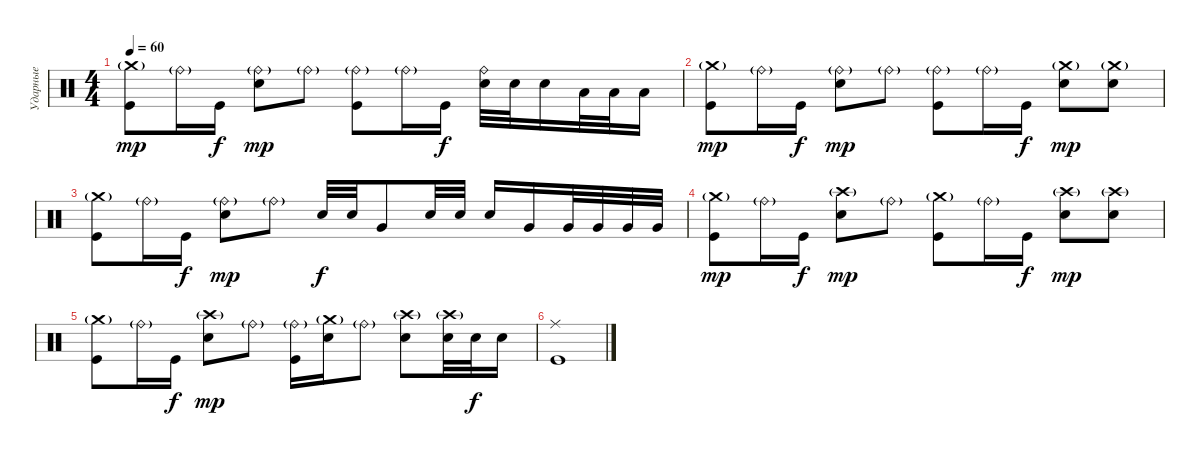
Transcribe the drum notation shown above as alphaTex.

\track ("Ударные" "Ударные") {instrument percussion}
\staff {score}
\articulation defaults
\ts (4 4)
\tempo 60
\clef neutral
\ks c
("Crash medium (hit)"{g} "Kick (hit)").8{dy mp} "Ride (bell)"{g}.16 "Kick (hit)".16{dy f} ("Snare (hit) 2" "Ride (bell)"{g}).8{dy mp} "Ride (bell)"{g}.8 ("Ride (bell)"{g} "Kick (hit)").8 "Ride (bell)"{g}.16 "Kick (hit)".16{dy f} ("Snare (hit) 2" "Ride (bell)").32 "Snare (hit) 2".32 "Snare (hit) 2".16 "Low Tom (hit)".32 "Low Tom (hit)".32 "Low Tom (hit)".16 |
("Crash medium (hit)"{g} "Kick (hit)").8{dy mp} "Ride (bell)"{g}.16 "Kick (hit)".16{dy f} ("Snare (hit) 2" "Ride (bell)"{g}).8{dy mp} "Ride (bell)"{g}.8 ("Ride (bell)"{g} "Kick (hit)").8 "Ride (bell)"{g}.16 "Kick (hit)".16{dy f} ("Snare (hit) 2" "Crash medium (hit)"{g}).8{dy mp} ("Snare (hit) 2" "Crash medium (hit)"{g}).8 |
("Crash medium (hit)"{g} "Kick (hit)").8 "Ride (bell)"{g}.16 "Kick (hit)".16{dy f} ("Snare (hit) 2" "Ride (bell)"{g}).8{dy mp} "Ride (bell)"{g}.8 "Snare (hit) 2".32{dy f} "Snare (hit) 2".32 "Very Low Tom (hit)".8 "Snare (hit) 2".32 "Snare (hit) 2".32 "Snare (hit) 2".16 "Very Low Tom (hit)".16 "Very Low Tom (hit)".32 "Very Low Tom (hit)".32 "Very Low Tom (hit)".32 "Very Low Tom (hit)".32 |
("Crash medium (hit)"{g} "Kick (hit)").8{dy mp} "Ride (bell)"{g}.16 "Kick (hit)".16{dy f} ("Snare (hit) 2" "Crash high (hit)"{g}).8{dy mp} "Ride (bell)"{g}.8 ("Crash medium (hit)"{g} "Kick (hit)").8 "Ride (bell)"{g}.16 "Kick (hit)".16{dy f} ("Snare (hit) 2" "Crash high (hit)"{g}).8{dy mp} ("Snare (hit) 2" "Crash high (hit)"{g}).8 |
("Crash medium (hit)"{g} "Kick (hit)").8 "Ride (bell)"{g}.16 "Kick (hit)".16{dy f} ("Snare (hit) 2" "Crash high (hit)"{g}).8{dy mp} "Ride (bell)"{g}.8 ("Ride (bell)"{g} "Kick (hit)").16 ("Crash medium (hit)"{g} "Snare (hit) 2").16 "Ride (bell)"{g}.8 ("Crash high (hit)"{g} "Snare (hit) 2").8 ("Crash high (hit)"{g} "Snare (hit) 2").32 "Snare (hit) 2".32{dy f} "Snare (hit) 2".16 |
("Ride (middle)" "Kick (hit)").1
